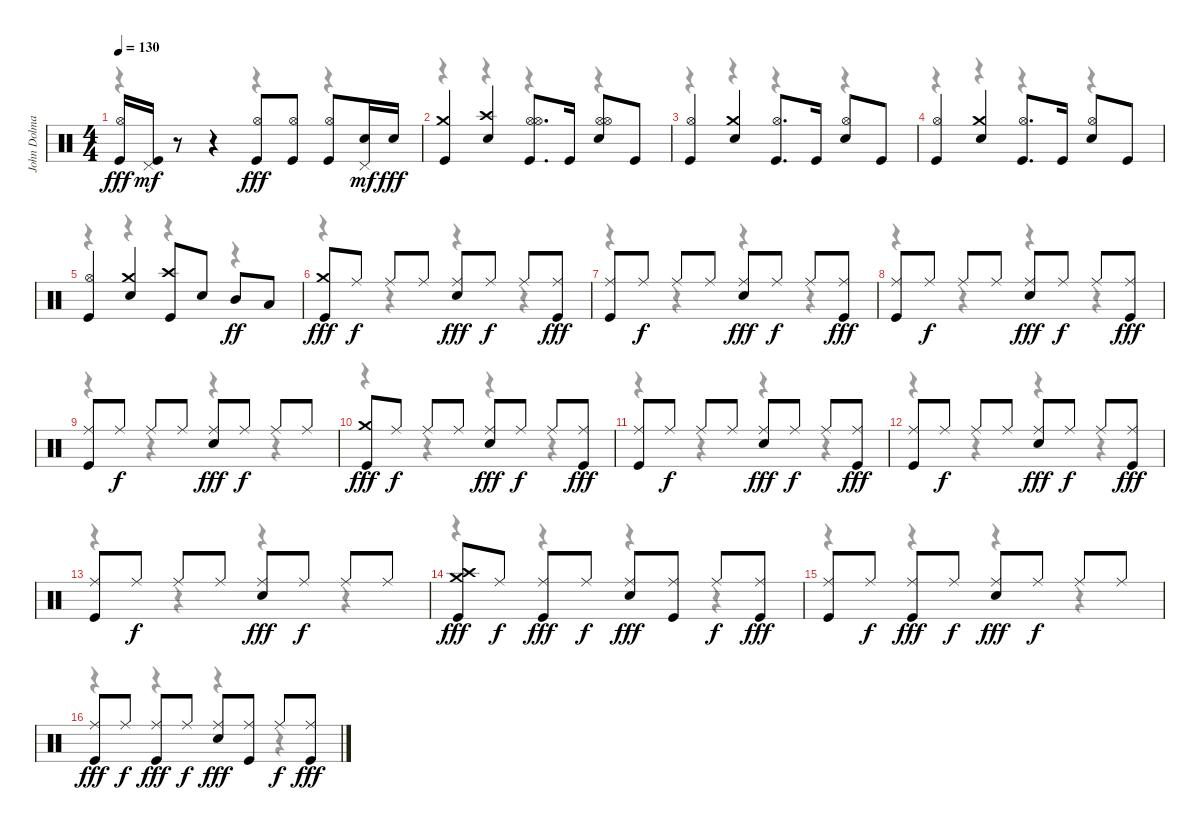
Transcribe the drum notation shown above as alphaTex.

\track ("John Dolmayan" "John Dolma") {instrument percussion}
\staff {score}
\articulation defaults
\voice
\ts (4 4)
\tempo 130
\clef neutral
\ks c
("Hi-Hat (open)" "Kick (hit)").16{dy fff} ("Kick (hit)" "Pedal Hi-Hat (hit)").16{dy mf} r.8 r.4 ("Hi-Hat (open)" "Kick (hit)").8{dy fff} ("Hi-Hat (open)" "Kick (hit)").8 ("Hi-Hat (open)" "Kick (hit)").8 ("Snare (hit) 2" "Pedal Hi-Hat (hit)").16{dy mf} "Snare (hit) 2".16{dy fff} |
("Crash medium (hit)" "Kick (hit)").4 ("Crash high (hit)" "Snare (hit) 2").4 ("Hi-Hat (open)" "Hi-Hat (open)" "Kick (hit)").8{d} "Kick (hit)".16 ("Hi-Hat (open)" "Snare (hit) 2" "Hi-Hat (open)").8 "Kick (hit)".8 |
("Hi-Hat (open)" "Kick (hit)").4 ("Crash medium (hit)" "Snare (hit) 2").4 ("Hi-Hat (open)" "Kick (hit)").8{d} "Kick (hit)".16 ("Hi-Hat (open)" "Snare (hit) 2").8 "Kick (hit)".8 |
("Hi-Hat (open)" "Kick (hit)").4 ("Crash medium (hit)" "Snare (hit) 2").4 ("Hi-Hat (open)" "Kick (hit)").8{d} "Kick (hit)".16 ("Hi-Hat (open)" "Snare (hit) 2").8 "Kick (hit)".8 |
("Hi-Hat (open)" "Kick (hit)").4 ("Crash medium (hit)" "Snare (hit) 2").4 ("Crash high (hit)" "Kick (hit)").8 "Snare (hit) 2".8 "Mid Tom (hit)".8{dy ff} "Low Tom (hit)".8 |
("Crash medium (hit)" "Kick (hit)").8{dy fff} "Ride (middle)".8{dy f} "Ride (middle)".8 "Ride (middle)".8 ("Ride (middle)" "Snare (hit) 2").8{dy fff} "Ride (middle)".8{dy f} "Ride (middle)".8 ("Ride (middle)" "Kick (hit)").8{dy fff} |
("Ride (middle)" "Kick (hit)").8 "Ride (middle)".8{dy f} "Ride (middle)".8 "Ride (middle)".8 ("Ride (middle)" "Snare (hit) 2").8{dy fff} "Ride (middle)".8{dy f} "Ride (middle)".8 ("Ride (middle)" "Kick (hit)").8{dy fff} |
("Ride (middle)" "Kick (hit)").8 "Ride (middle)".8{dy f} "Ride (middle)".8 "Ride (middle)".8 ("Ride (middle)" "Snare (hit) 2").8{dy fff} "Ride (middle)".8{dy f} "Ride (middle)".8 ("Ride (middle)" "Kick (hit)").8{dy fff} |
("Ride (middle)" "Kick (hit)").8 "Ride (middle)".8{dy f} "Ride (middle)".8 "Ride (middle)".8 ("Ride (middle)" "Snare (hit) 2").8{dy fff} "Ride (middle)".8{dy f} "Ride (middle)".8 "Ride (middle)".8 |
("Crash medium (hit)" "Kick (hit)").8{dy fff} "Ride (middle)".8{dy f} "Ride (middle)".8 "Ride (middle)".8 ("Ride (middle)" "Snare (hit) 2").8{dy fff} "Ride (middle)".8{dy f} "Ride (middle)".8 ("Ride (middle)" "Kick (hit)").8{dy fff} |
("Ride (middle)" "Kick (hit)").8 "Ride (middle)".8{dy f} "Ride (middle)".8 "Ride (middle)".8 ("Ride (middle)" "Snare (hit) 2").8{dy fff} "Ride (middle)".8{dy f} "Ride (middle)".8 ("Ride (middle)" "Kick (hit)").8{dy fff} |
("Ride (middle)" "Kick (hit)").8 "Ride (middle)".8{dy f} "Ride (middle)".8 "Ride (middle)".8 ("Ride (middle)" "Snare (hit) 2").8{dy fff} "Ride (middle)".8{dy f} "Ride (middle)".8 ("Ride (middle)" "Kick (hit)").8{dy fff} |
("Ride (middle)" "Kick (hit)").8 "Ride (middle)".8{dy f} "Ride (middle)".8 "Ride (middle)".8 ("Ride (middle)" "Snare (hit) 2").8{dy fff} "Ride (middle)".8{dy f} "Ride (middle)".8 "Ride (middle)".8 |
("Crash medium (hit)" "Crash high (hit)" "Kick (hit)").8{dy fff} "Ride (middle)".8{dy f} ("Ride (middle)" "Kick (hit)").8{dy fff} "Ride (middle)".8{dy f} ("Ride (middle)" "Snare (hit) 2").8{dy fff} ("Ride (middle)" "Kick (hit)").8 "Ride (middle)".8{dy f} ("Ride (middle)" "Kick (hit)").8{dy fff} |
("Ride (middle)" "Kick (hit)").8 "Ride (middle)".8{dy f} ("Ride (middle)" "Kick (hit)").8{dy fff} "Ride (middle)".8{dy f} ("Ride (middle)" "Snare (hit) 2").8{dy fff} "Ride (middle)".8{dy f} "Ride (middle)".8 "Ride (middle)".8 |
("Ride (middle)" "Kick (hit)").8{dy fff} "Ride (middle)".8{dy f} ("Ride (middle)" "Kick (hit)").8{dy fff} "Ride (middle)".8{dy f} ("Ride (middle)" "Snare (hit) 2").8{dy fff} ("Ride (middle)" "Kick (hit)").8 "Ride (middle)".8{dy f} ("Ride (middle)" "Kick (hit)").8{dy fff}
\voice
\clef neutral
\ottava regular
\simile none
\ks c
r.4{dy f} r.4 r.4 r.4 |
r.4 r.4 r.4 r.4 |
r.4 r.4 r.4 r.4 |
r.4 r.4 r.4 r.4 |
r.4 r.4 r.4 r.4 |
r.4 r.4 r.4 r.4 |
r.4 r.4 r.4 r.4 |
r.4 r.4 r.4 r.4 |
r.4 r.4 r.4 r.4 |
r.4 r.4 r.4 r.4 |
r.4 r.4 r.4 r.4 |
r.4 r.4 r.4 r.4 |
r.4 r.4 r.4 r.4 |
r.4 r.4 r.4 r.4 |
r.4 r.4 r.4 r.4 |
r.4 r.4 r.4 r.4
